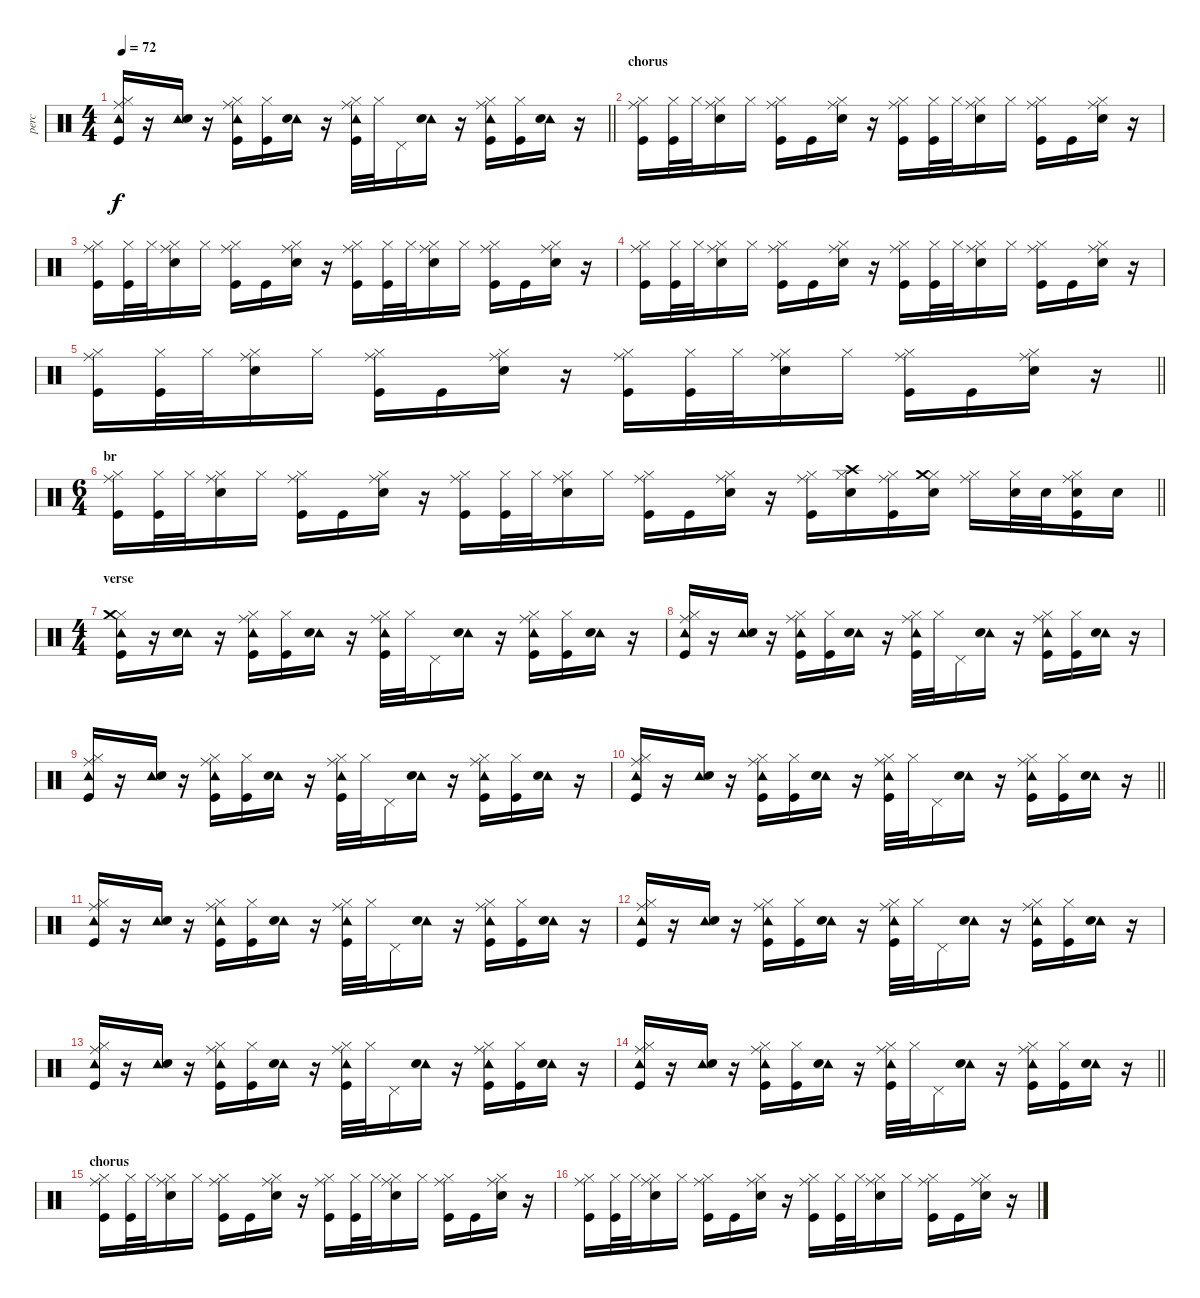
\track ("perc" "perc") {instrument percussion}
\staff {score}
\articulation defaults
\ts (4 4)
\tempo 72
\clef neutral
\barLineRight lightlight
\ks c
("Tambourine (hit)" "Ride (middle)" "Hi-Hat (closed)" "Kick (hit)").16{dy f} r.16 ("Tambourine (hit)" "Snare (hit) 2").16 r.16 ("Tambourine (hit)" "Ride (middle)" "Hi-Hat (closed)" "Kick (hit)").16 ("Hi-Hat (closed)" "Kick (hit)").16 ("Tambourine (hit)" "Snare (hit) 2").16 r.16 ("Tambourine (hit)" "Ride (middle)" "Hi-Hat (closed)" "Kick (hit)").32 "Hi-Hat (closed)".32 "Pedal Hi-Hat (hit)".16 ("Tambourine (hit)" "Snare (hit) 2").16 r.16 ("Tambourine (hit)" "Ride (middle)" "Hi-Hat (closed)" "Kick (hit)").16 ("Hi-Hat (closed)" "Kick (hit)").16 ("Tambourine (hit)" "Snare (hit) 2").16 r.16 |
\section ("" "chorus")
("Ride (middle)" "Hi-Hat (closed)" "Kick (hit)").16 ("Hi-Hat (closed)" "Kick (hit)").32 "Hi-Hat (closed)".32 ("Ride (middle)" "Hi-Hat (closed)" "Snare (hit) 2").16 "Hi-Hat (closed)".16 ("Ride (middle)" "Hi-Hat (closed)" "Kick (hit)").16 "Kick (hit)".16 ("Ride (middle)" "Hi-Hat (closed)" "Snare (hit) 2").16 r.16 ("Ride (middle)" "Hi-Hat (closed)" "Kick (hit)").16 ("Hi-Hat (closed)" "Kick (hit)").32 "Hi-Hat (closed)".32 ("Ride (middle)" "Hi-Hat (closed)" "Snare (hit) 2").16 "Hi-Hat (closed)".16 ("Ride (middle)" "Hi-Hat (closed)" "Kick (hit)").16 "Kick (hit)".16 ("Ride (middle)" "Hi-Hat (closed)" "Snare (hit) 2").16 r.16 |
("Ride (middle)" "Hi-Hat (closed)" "Kick (hit)").16 ("Hi-Hat (closed)" "Kick (hit)").32 "Hi-Hat (closed)".32 ("Ride (middle)" "Hi-Hat (closed)" "Snare (hit) 2").16 "Hi-Hat (closed)".16 ("Ride (middle)" "Hi-Hat (closed)" "Kick (hit)").16 "Kick (hit)".16 ("Ride (middle)" "Hi-Hat (closed)" "Snare (hit) 2").16 r.16 ("Ride (middle)" "Hi-Hat (closed)" "Kick (hit)").16 ("Hi-Hat (closed)" "Kick (hit)").32 "Hi-Hat (closed)".32 ("Ride (middle)" "Hi-Hat (closed)" "Snare (hit) 2").16 "Hi-Hat (closed)".16 ("Ride (middle)" "Hi-Hat (closed)" "Kick (hit)").16 "Kick (hit)".16 ("Ride (middle)" "Hi-Hat (closed)" "Snare (hit) 2").16 r.16 |
("Ride (middle)" "Hi-Hat (closed)" "Kick (hit)").16 ("Hi-Hat (closed)" "Kick (hit)").32 "Hi-Hat (closed)".32 ("Ride (middle)" "Hi-Hat (closed)" "Snare (hit) 2").16 "Hi-Hat (closed)".16 ("Ride (middle)" "Hi-Hat (closed)" "Kick (hit)").16 "Kick (hit)".16 ("Ride (middle)" "Hi-Hat (closed)" "Snare (hit) 2").16 r.16 ("Ride (middle)" "Hi-Hat (closed)" "Kick (hit)").16 ("Hi-Hat (closed)" "Kick (hit)").32 "Hi-Hat (closed)".32 ("Ride (middle)" "Hi-Hat (closed)" "Snare (hit) 2").16 "Hi-Hat (closed)".16 ("Ride (middle)" "Hi-Hat (closed)" "Kick (hit)").16 "Kick (hit)".16 ("Ride (middle)" "Hi-Hat (closed)" "Snare (hit) 2").16 r.16 |
\barLineRight lightlight
("Ride (middle)" "Hi-Hat (closed)" "Kick (hit)").16 ("Hi-Hat (closed)" "Kick (hit)").32 "Hi-Hat (closed)".32 ("Ride (middle)" "Hi-Hat (closed)" "Snare (hit) 2").16 "Hi-Hat (closed)".16 ("Ride (middle)" "Hi-Hat (closed)" "Kick (hit)").16 "Kick (hit)".16 ("Ride (middle)" "Hi-Hat (closed)" "Snare (hit) 2").16 r.16 ("Ride (middle)" "Hi-Hat (closed)" "Kick (hit)").16 ("Hi-Hat (closed)" "Kick (hit)").32 "Hi-Hat (closed)".32 ("Ride (middle)" "Hi-Hat (closed)" "Snare (hit) 2").16 "Hi-Hat (closed)".16 ("Ride (middle)" "Hi-Hat (closed)" "Kick (hit)").16 "Kick (hit)".16 ("Ride (middle)" "Hi-Hat (closed)" "Snare (hit) 2").16 r.16 |
\ts (6 4)
\section ("" "br")
\barLineRight lightlight
("Ride (middle)" "Hi-Hat (closed)" "Kick (hit)").16 ("Hi-Hat (closed)" "Kick (hit)").32 "Hi-Hat (closed)".32 ("Ride (middle)" "Hi-Hat (closed)" "Snare (hit) 2").16 "Hi-Hat (closed)".16 ("Ride (middle)" "Hi-Hat (closed)" "Kick (hit)").16 "Kick (hit)".16 ("Ride (middle)" "Hi-Hat (closed)" "Snare (hit) 2").16 r.16 ("Ride (middle)" "Hi-Hat (closed)" "Kick (hit)").16 ("Hi-Hat (closed)" "Kick (hit)").32 "Hi-Hat (closed)".32 ("Ride (middle)" "Hi-Hat (closed)" "Snare (hit) 2").16 "Hi-Hat (closed)".16 ("Ride (middle)" "Hi-Hat (closed)" "Kick (hit)").16 "Kick (hit)".16 ("Ride (middle)" "Hi-Hat (closed)" "Snare (hit) 2").16 r.16 ("Ride (middle)" "Hi-Hat (closed)" "Kick (hit)").16 ("Hi-Hat (closed)" "Crash high (hit)" "Snare (hit) 2").16 ("Ride (middle)" "Hi-Hat (closed)" "Kick (hit)").16 ("Hi-Hat (closed)" "Crash medium (hit)" "Snare (hit) 2").16 ("Ride (middle)" "Hi-Hat (closed)").16 ("Hi-Hat (closed)" "Snare (hit) 2").32 "Snare (hit) 2".32 ("Ride (middle)" "Hi-Hat (closed)" "Snare (hit) 2" "Kick (hit)").16 "Snare (hit) 2".16 |
\ts (4 4)
\section ("" "verse")
("Tambourine (hit)" "Hi-Hat (closed)" "Crash medium (hit)" "Kick (hit)").16 r.16 ("Tambourine (hit)" "Snare (hit) 2").16 r.16 ("Tambourine (hit)" "Ride (middle)" "Hi-Hat (closed)" "Kick (hit)").16 ("Hi-Hat (closed)" "Kick (hit)").16 ("Tambourine (hit)" "Snare (hit) 2").16 r.16 ("Tambourine (hit)" "Ride (middle)" "Hi-Hat (closed)" "Kick (hit)").32 "Hi-Hat (closed)".32 "Pedal Hi-Hat (hit)".16 ("Tambourine (hit)" "Snare (hit) 2").16 r.16 ("Tambourine (hit)" "Ride (middle)" "Hi-Hat (closed)" "Kick (hit)").16 ("Hi-Hat (closed)" "Kick (hit)").16 ("Tambourine (hit)" "Snare (hit) 2").16 r.16 |
("Tambourine (hit)" "Ride (middle)" "Hi-Hat (closed)" "Kick (hit)").16 r.16 ("Tambourine (hit)" "Snare (hit) 2").16 r.16 ("Tambourine (hit)" "Ride (middle)" "Hi-Hat (closed)" "Kick (hit)").16 ("Hi-Hat (closed)" "Kick (hit)").16 ("Tambourine (hit)" "Snare (hit) 2").16 r.16 ("Tambourine (hit)" "Ride (middle)" "Hi-Hat (closed)" "Kick (hit)").32 "Hi-Hat (closed)".32 "Pedal Hi-Hat (hit)".16 ("Tambourine (hit)" "Snare (hit) 2").16 r.16 ("Tambourine (hit)" "Ride (middle)" "Hi-Hat (closed)" "Kick (hit)").16 ("Hi-Hat (closed)" "Kick (hit)").16 ("Tambourine (hit)" "Snare (hit) 2").16 r.16 |
("Tambourine (hit)" "Ride (middle)" "Hi-Hat (closed)" "Kick (hit)").16 r.16 ("Tambourine (hit)" "Snare (hit) 2").16 r.16 ("Tambourine (hit)" "Ride (middle)" "Hi-Hat (closed)" "Kick (hit)").16 ("Hi-Hat (closed)" "Kick (hit)").16 ("Tambourine (hit)" "Snare (hit) 2").16 r.16 ("Tambourine (hit)" "Ride (middle)" "Hi-Hat (closed)" "Kick (hit)").32 "Hi-Hat (closed)".32 "Pedal Hi-Hat (hit)".16 ("Tambourine (hit)" "Snare (hit) 2").16 r.16 ("Tambourine (hit)" "Ride (middle)" "Hi-Hat (closed)" "Kick (hit)").16 ("Hi-Hat (closed)" "Kick (hit)").16 ("Tambourine (hit)" "Snare (hit) 2").16 r.16 |
\barLineRight lightlight
("Tambourine (hit)" "Ride (middle)" "Hi-Hat (closed)" "Kick (hit)").16 r.16 ("Tambourine (hit)" "Snare (hit) 2").16 r.16 ("Tambourine (hit)" "Ride (middle)" "Hi-Hat (closed)" "Kick (hit)").16 ("Hi-Hat (closed)" "Kick (hit)").16 ("Tambourine (hit)" "Snare (hit) 2").16 r.16 ("Tambourine (hit)" "Ride (middle)" "Hi-Hat (closed)" "Kick (hit)").32 "Hi-Hat (closed)".32 "Pedal Hi-Hat (hit)".16 ("Tambourine (hit)" "Snare (hit) 2").16 r.16 ("Tambourine (hit)" "Ride (middle)" "Hi-Hat (closed)" "Kick (hit)").16 ("Hi-Hat (closed)" "Kick (hit)").16 ("Tambourine (hit)" "Snare (hit) 2").16 r.16 |
\section ("" "")
("Tambourine (hit)" "Ride (middle)" "Hi-Hat (closed)" "Kick (hit)").16 r.16 ("Tambourine (hit)" "Snare (hit) 2").16 r.16 ("Tambourine (hit)" "Ride (middle)" "Hi-Hat (closed)" "Kick (hit)").16 ("Hi-Hat (closed)" "Kick (hit)").16 ("Tambourine (hit)" "Snare (hit) 2").16 r.16 ("Tambourine (hit)" "Ride (middle)" "Hi-Hat (closed)" "Kick (hit)").32 "Hi-Hat (closed)".32 "Pedal Hi-Hat (hit)".16 ("Tambourine (hit)" "Snare (hit) 2").16 r.16 ("Tambourine (hit)" "Ride (middle)" "Hi-Hat (closed)" "Kick (hit)").16 ("Hi-Hat (closed)" "Kick (hit)").16 ("Tambourine (hit)" "Snare (hit) 2").16 r.16 |
("Tambourine (hit)" "Ride (middle)" "Hi-Hat (closed)" "Kick (hit)").16 r.16 ("Tambourine (hit)" "Snare (hit) 2").16 r.16 ("Tambourine (hit)" "Ride (middle)" "Hi-Hat (closed)" "Kick (hit)").16 ("Hi-Hat (closed)" "Kick (hit)").16 ("Tambourine (hit)" "Snare (hit) 2").16 r.16 ("Tambourine (hit)" "Ride (middle)" "Hi-Hat (closed)" "Kick (hit)").32 "Hi-Hat (closed)".32 "Pedal Hi-Hat (hit)".16 ("Tambourine (hit)" "Snare (hit) 2").16 r.16 ("Tambourine (hit)" "Ride (middle)" "Hi-Hat (closed)" "Kick (hit)").16 ("Hi-Hat (closed)" "Kick (hit)").16 ("Tambourine (hit)" "Snare (hit) 2").16 r.16 |
("Tambourine (hit)" "Ride (middle)" "Hi-Hat (closed)" "Kick (hit)").16 r.16 ("Tambourine (hit)" "Snare (hit) 2").16 r.16 ("Tambourine (hit)" "Ride (middle)" "Hi-Hat (closed)" "Kick (hit)").16 ("Hi-Hat (closed)" "Kick (hit)").16 ("Tambourine (hit)" "Snare (hit) 2").16 r.16 ("Tambourine (hit)" "Ride (middle)" "Hi-Hat (closed)" "Kick (hit)").32 "Hi-Hat (closed)".32 "Pedal Hi-Hat (hit)".16 ("Tambourine (hit)" "Snare (hit) 2").16 r.16 ("Tambourine (hit)" "Ride (middle)" "Hi-Hat (closed)" "Kick (hit)").16 ("Hi-Hat (closed)" "Kick (hit)").16 ("Tambourine (hit)" "Snare (hit) 2").16 r.16 |
\barLineRight lightlight
("Tambourine (hit)" "Ride (middle)" "Hi-Hat (closed)" "Kick (hit)").16 r.16 ("Tambourine (hit)" "Snare (hit) 2").16 r.16 ("Tambourine (hit)" "Ride (middle)" "Hi-Hat (closed)" "Kick (hit)").16 ("Hi-Hat (closed)" "Kick (hit)").16 ("Tambourine (hit)" "Snare (hit) 2").16 r.16 ("Tambourine (hit)" "Ride (middle)" "Hi-Hat (closed)" "Kick (hit)").32 "Hi-Hat (closed)".32 "Pedal Hi-Hat (hit)".16 ("Tambourine (hit)" "Snare (hit) 2").16 r.16 ("Tambourine (hit)" "Ride (middle)" "Hi-Hat (closed)" "Kick (hit)").16 ("Hi-Hat (closed)" "Kick (hit)").16 ("Tambourine (hit)" "Snare (hit) 2").16 r.16 |
\section ("" "chorus")
("Ride (middle)" "Hi-Hat (closed)" "Kick (hit)").16 ("Hi-Hat (closed)" "Kick (hit)").32 "Hi-Hat (closed)".32 ("Ride (middle)" "Hi-Hat (closed)" "Snare (hit) 2").16 "Hi-Hat (closed)".16 ("Ride (middle)" "Hi-Hat (closed)" "Kick (hit)").16 "Kick (hit)".16 ("Ride (middle)" "Hi-Hat (closed)" "Snare (hit) 2").16 r.16 ("Ride (middle)" "Hi-Hat (closed)" "Kick (hit)").16 ("Hi-Hat (closed)" "Kick (hit)").32 "Hi-Hat (closed)".32 ("Ride (middle)" "Hi-Hat (closed)" "Snare (hit) 2").16 "Hi-Hat (closed)".16 ("Ride (middle)" "Hi-Hat (closed)" "Kick (hit)").16 "Kick (hit)".16 ("Ride (middle)" "Hi-Hat (closed)" "Snare (hit) 2").16 r.16 |
("Ride (middle)" "Hi-Hat (closed)" "Kick (hit)").16 ("Hi-Hat (closed)" "Kick (hit)").32 "Hi-Hat (closed)".32 ("Ride (middle)" "Hi-Hat (closed)" "Snare (hit) 2").16 "Hi-Hat (closed)".16 ("Ride (middle)" "Hi-Hat (closed)" "Kick (hit)").16 "Kick (hit)".16 ("Ride (middle)" "Hi-Hat (closed)" "Snare (hit) 2").16 r.16 ("Ride (middle)" "Hi-Hat (closed)" "Kick (hit)").16 ("Hi-Hat (closed)" "Kick (hit)").32 "Hi-Hat (closed)".32 ("Ride (middle)" "Hi-Hat (closed)" "Snare (hit) 2").16 "Hi-Hat (closed)".16 ("Ride (middle)" "Hi-Hat (closed)" "Kick (hit)").16 "Kick (hit)".16 ("Ride (middle)" "Hi-Hat (closed)" "Snare (hit) 2").16 r.16
